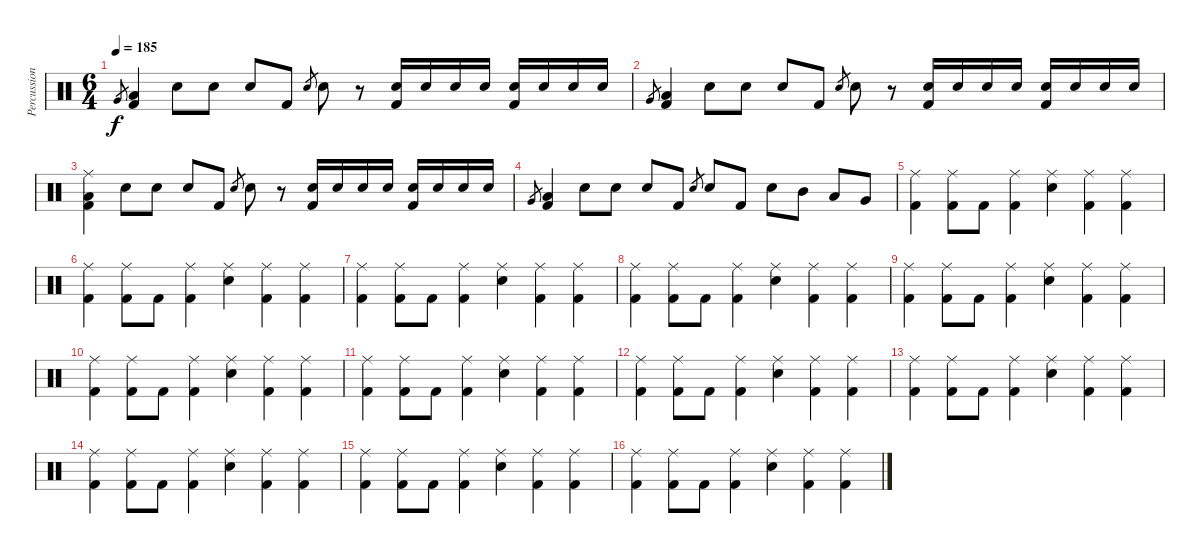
\track ("Percussion" "Percussion") {instrument percussion}
\staff {score}
\articulation defaults
\ts (6 4)
\tempo 185
\clef neutral
\ks c "Very Low Tom (hit)".8{gr dy f}
("Low Tom (hit)" "Kick (hit) 2").4 "Electric Snare (hit)".8 "Electric Snare (hit)".8 "Electric Snare (hit)".8 "Kick (hit) 2".8 "Electric Snare (hit)".8{gr} "Electric Snare (hit)".8 r.8 ("Electric Snare (hit)" "Kick (hit) 2").16 "Electric Snare (hit)".16 "Electric Snare (hit)".16 "Electric Snare (hit)".16 ("Electric Snare (hit)" "Kick (hit) 2").16 "Electric Snare (hit)".16 "Electric Snare (hit)".16 "Electric Snare (hit)".16 |
"Very Low Tom (hit)".8{gr} ("Low Tom (hit)" "Kick (hit) 2").4 "Electric Snare (hit)".8 "Electric Snare (hit)".8 "Electric Snare (hit)".8 "Kick (hit) 2".8 "Electric Snare (hit)".8{gr} "Electric Snare (hit)".8 r.8 ("Electric Snare (hit)" "Kick (hit) 2").16 "Electric Snare (hit)".16 "Electric Snare (hit)".16 "Electric Snare (hit)".16 ("Electric Snare (hit)" "Kick (hit) 2").16 "Electric Snare (hit)".16 "Electric Snare (hit)".16 "Electric Snare (hit)".16 |
("Ride (middle)" "Low Tom (hit)" "Kick (hit) 2").4 "Electric Snare (hit)".8 "Electric Snare (hit)".8 "Electric Snare (hit)".8 "Kick (hit) 2".8 "Electric Snare (hit)".8{gr} "Electric Snare (hit)".8 r.8 ("Electric Snare (hit)" "Kick (hit) 2").16 "Electric Snare (hit)".16 "Electric Snare (hit)".16 "Electric Snare (hit)".16 ("Electric Snare (hit)" "Kick (hit) 2").16 "Electric Snare (hit)".16 "Electric Snare (hit)".16 "Electric Snare (hit)".16 |
"Very Low Tom (hit)".8{gr} ("Low Tom (hit)" "Kick (hit) 2").4 "Electric Snare (hit)".8 "Electric Snare (hit)".8 "Electric Snare (hit)".8 "Kick (hit) 2".8 "Electric Snare (hit)".8{gr} "Electric Snare (hit)".8 "Kick (hit) 2".8 "Electric Snare (hit)".8 "Mid Tom (hit)".8 "Low Tom (hit)".8 "Very Low Tom (hit)".8 |
("Ride (middle)" "Kick (hit) 2").4 ("Ride (middle)" "Kick (hit) 2").8 "Kick (hit) 2".8 ("Ride (middle)" "Kick (hit) 2").4 ("Ride (middle)" "Electric Snare (hit)").4 ("Ride (middle)" "Kick (hit) 2").4 ("Ride (middle)" "Kick (hit) 2").4 |
("Ride (middle)" "Kick (hit) 2").4 ("Ride (middle)" "Kick (hit) 2").8 "Kick (hit) 2".8 ("Ride (middle)" "Kick (hit) 2").4 ("Ride (middle)" "Electric Snare (hit)").4 ("Ride (middle)" "Kick (hit) 2").4 ("Ride (middle)" "Kick (hit) 2").4 |
("Ride (middle)" "Kick (hit) 2").4 ("Ride (middle)" "Kick (hit) 2").8 "Kick (hit) 2".8 ("Ride (middle)" "Kick (hit) 2").4 ("Ride (middle)" "Electric Snare (hit)").4 ("Ride (middle)" "Kick (hit) 2").4 ("Ride (middle)" "Kick (hit) 2").4 |
("Ride (middle)" "Kick (hit) 2").4 ("Ride (middle)" "Kick (hit) 2").8 "Kick (hit) 2".8 ("Ride (middle)" "Kick (hit) 2").4 ("Ride (middle)" "Electric Snare (hit)").4 ("Ride (middle)" "Kick (hit) 2").4 ("Ride (middle)" "Kick (hit) 2").4 |
("Ride (middle)" "Kick (hit) 2").4 ("Ride (middle)" "Kick (hit) 2").8 "Kick (hit) 2".8 ("Ride (middle)" "Kick (hit) 2").4 ("Ride (middle)" "Electric Snare (hit)").4 ("Ride (middle)" "Kick (hit) 2").4 ("Ride (middle)" "Kick (hit) 2").4 |
("Ride (middle)" "Kick (hit) 2").4 ("Ride (middle)" "Kick (hit) 2").8 "Kick (hit) 2".8 ("Ride (middle)" "Kick (hit) 2").4 ("Ride (middle)" "Electric Snare (hit)").4 ("Ride (middle)" "Kick (hit) 2").4 ("Ride (middle)" "Kick (hit) 2").4 |
("Ride (middle)" "Kick (hit) 2").4 ("Ride (middle)" "Kick (hit) 2").8 "Kick (hit) 2".8 ("Ride (middle)" "Kick (hit) 2").4 ("Ride (middle)" "Electric Snare (hit)").4 ("Ride (middle)" "Kick (hit) 2").4 ("Ride (middle)" "Kick (hit) 2").4 |
("Ride (middle)" "Kick (hit) 2").4 ("Ride (middle)" "Kick (hit) 2").8 "Kick (hit) 2".8 ("Ride (middle)" "Kick (hit) 2").4 ("Ride (middle)" "Electric Snare (hit)").4 ("Ride (middle)" "Kick (hit) 2").4 ("Ride (middle)" "Kick (hit) 2").4 |
("Ride (middle)" "Kick (hit) 2").4 ("Ride (middle)" "Kick (hit) 2").8 "Kick (hit) 2".8 ("Ride (middle)" "Kick (hit) 2").4 ("Ride (middle)" "Electric Snare (hit)").4 ("Ride (middle)" "Kick (hit) 2").4 ("Ride (middle)" "Kick (hit) 2").4 |
("Ride (middle)" "Kick (hit) 2").4 ("Ride (middle)" "Kick (hit) 2").8 "Kick (hit) 2".8 ("Ride (middle)" "Kick (hit) 2").4 ("Ride (middle)" "Electric Snare (hit)").4 ("Ride (middle)" "Kick (hit) 2").4 ("Ride (middle)" "Kick (hit) 2").4 |
("Ride (middle)" "Kick (hit) 2").4 ("Ride (middle)" "Kick (hit) 2").8 "Kick (hit) 2".8 ("Ride (middle)" "Kick (hit) 2").4 ("Ride (middle)" "Electric Snare (hit)").4 ("Ride (middle)" "Kick (hit) 2").4 ("Ride (middle)" "Kick (hit) 2").4 |
("Ride (middle)" "Kick (hit) 2").4 ("Ride (middle)" "Kick (hit) 2").8 "Kick (hit) 2".8 ("Ride (middle)" "Kick (hit) 2").4 ("Ride (middle)" "Electric Snare (hit)").4 ("Ride (middle)" "Kick (hit) 2").4 ("Ride (middle)" "Kick (hit) 2").4
